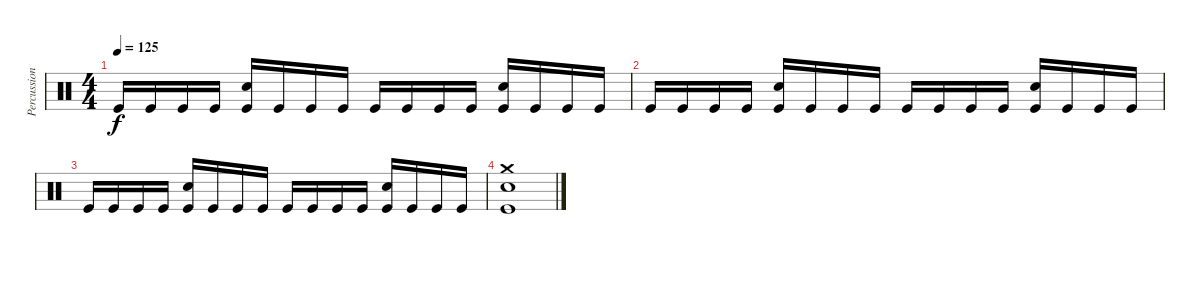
\track ("Percussion" "Percussion") {instrument percussion}
\staff {score}
\articulation defaults
\ts (4 4)
\tempo 125
\clef neutral
\ks c "Kick (hit)".16{dy f} "Kick (hit)".16 "Kick (hit)".16 "Kick (hit)".16
("Electric Snare (hit)" "Kick (hit)").16 "Kick (hit)".16 "Kick (hit)".16 "Kick (hit)".16 "Kick (hit)".16 "Kick (hit)".16 "Kick (hit)".16 "Kick (hit)".16 ("Electric Snare (hit)" "Kick (hit)").16 "Kick (hit)".16 "Kick (hit)".16 "Kick (hit)".16 |
"Kick (hit)".16 "Kick (hit)".16 "Kick (hit)".16 "Kick (hit)".16 ("Electric Snare (hit)" "Kick (hit)").16 "Kick (hit)".16 "Kick (hit)".16 "Kick (hit)".16 "Kick (hit)".16 "Kick (hit)".16 "Kick (hit)".16 "Kick (hit)".16 ("Electric Snare (hit)" "Kick (hit)").16 "Kick (hit)".16 "Kick (hit)".16 "Kick (hit)".16 |
"Kick (hit)".16 "Kick (hit)".16 "Kick (hit)".16 "Kick (hit)".16 ("Electric Snare (hit)" "Kick (hit)").16 "Kick (hit)".16 "Kick (hit)".16 "Kick (hit)".16 "Kick (hit)".16 "Kick (hit)".16 "Kick (hit)".16 "Kick (hit)".16 ("Electric Snare (hit)" "Kick (hit)").16 "Kick (hit)".16 "Kick (hit)".16 "Kick (hit)".16 |
("Crash medium (hit)" "Electric Snare (hit)" "Kick (hit)").1
